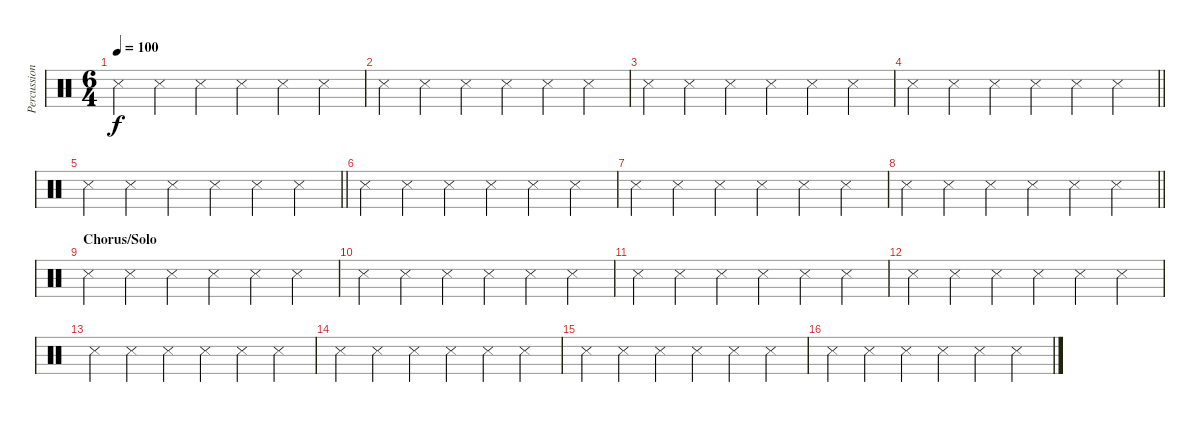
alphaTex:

\track ("Percussion" "Percussion") {mute instrument percussion}
\staff {score}
\articulation defaults
\ts (6 4)
\tempo 100
\clef neutral
\ks c "Metronome (hit)".4{dy f} "Snare (side stick) 3".4 "Snare (side stick) 3".4 "Snare (side stick) 3".4 "Snare (side stick) 3".4 "Snare (side stick) 3".4
|
"Metronome (hit)".4 "Snare (side stick) 3".4 "Snare (side stick) 3".4 "Snare (side stick) 3".4 "Snare (side stick) 3".4 "Snare (side stick) 3".4 |
"Metronome (hit)".4 "Snare (side stick) 3".4 "Snare (side stick) 3".4 "Snare (side stick) 3".4 "Snare (side stick) 3".4 "Snare (side stick) 3".4 |
\barLineRight lightlight "Metronome (hit)".4 "Snare (side stick) 3".4 "Snare (side stick) 3".4 "Snare (side stick) 3".4 "Snare (side stick) 3".4 "Snare (side stick) 3".4
|
\barLineRight lightlight "Metronome (hit)".4 "Snare (side stick) 3".4 "Snare (side stick) 3".4 "Snare (side stick) 3".4 "Snare (side stick) 3".4 "Snare (side stick) 3".4
|
"Metronome (hit)".4 "Snare (side stick) 3".4 "Snare (side stick) 3".4 "Snare (side stick) 3".4 "Snare (side stick) 3".4 "Snare (side stick) 3".4 |
"Metronome (hit)".4 "Snare (side stick) 3".4 "Snare (side stick) 3".4 "Snare (side stick) 3".4 "Snare (side stick) 3".4 "Snare (side stick) 3".4 |
\barLineRight lightlight "Metronome (hit)".4 "Snare (side stick) 3".4 "Snare (side stick) 3".4 "Snare (side stick) 3".4 "Snare (side stick) 3".4 "Snare (side stick) 3".4
|
\section ("" "Chorus/Solo")
"Metronome (hit)".4 "Snare (side stick) 3".4 "Snare (side stick) 3".4 "Snare (side stick) 3".4 "Snare (side stick) 3".4 "Snare (side stick) 3".4 |
"Metronome (hit)".4 "Snare (side stick) 3".4 "Snare (side stick) 3".4 "Snare (side stick) 3".4 "Snare (side stick) 3".4 "Snare (side stick) 3".4 |
"Metronome (hit)".4 "Snare (side stick) 3".4 "Snare (side stick) 3".4 "Snare (side stick) 3".4 "Snare (side stick) 3".4 "Snare (side stick) 3".4 |
"Metronome (hit)".4 "Snare (side stick) 3".4 "Snare (side stick) 3".4 "Snare (side stick) 3".4 "Snare (side stick) 3".4 "Snare (side stick) 3".4 |
"Metronome (hit)".4 "Snare (side stick) 3".4 "Snare (side stick) 3".4 "Snare (side stick) 3".4 "Snare (side stick) 3".4 "Snare (side stick) 3".4 |
"Metronome (hit)".4 "Snare (side stick) 3".4 "Snare (side stick) 3".4 "Snare (side stick) 3".4 "Snare (side stick) 3".4 "Snare (side stick) 3".4 |
"Metronome (hit)".4 "Snare (side stick) 3".4 "Snare (side stick) 3".4 "Snare (side stick) 3".4 "Snare (side stick) 3".4 "Snare (side stick) 3".4 |
"Metronome (hit)".4 "Snare (side stick) 3".4 "Snare (side stick) 3".4 "Snare (side stick) 3".4 "Snare (side stick) 3".4 "Snare (side stick) 3".4
